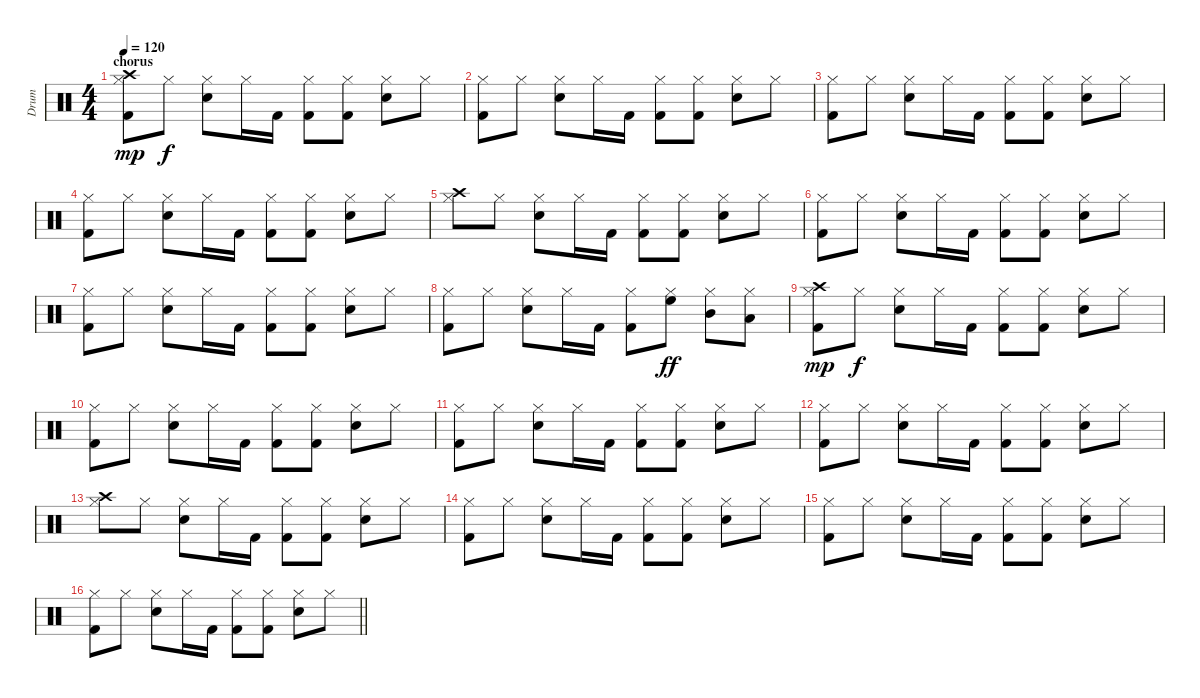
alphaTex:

\track ("Drum" "Drum") {instrument percussion}
\staff {score}
\articulation defaults
\ts (4 4)
\section ("" "chorus")
\tempo 120
\clef neutral
\ks c
("Kick (hit) 2" "Hi-Hat (closed)" "Crash high (hit)").8{dy mp} "Hi-Hat (closed)".8{dy f} ("Electric Snare (hit)" "Hi-Hat (closed)").8 "Hi-Hat (closed)".16 "Kick (hit) 2".16 ("Kick (hit) 2" "Hi-Hat (closed)").8 ("Kick (hit) 2" "Hi-Hat (closed)").8 ("Electric Snare (hit)" "Hi-Hat (closed)").8 "Hi-Hat (closed)".8 |
("Kick (hit) 2" "Hi-Hat (closed)").8 "Hi-Hat (closed)".8 ("Electric Snare (hit)" "Hi-Hat (closed)").8 "Hi-Hat (closed)".16 "Kick (hit) 2".16 ("Kick (hit) 2" "Hi-Hat (closed)").8 ("Kick (hit) 2" "Hi-Hat (closed)").8 ("Electric Snare (hit)" "Hi-Hat (closed)").8 "Hi-Hat (closed)".8 |
("Kick (hit) 2" "Hi-Hat (closed)").8 "Hi-Hat (closed)".8 ("Electric Snare (hit)" "Hi-Hat (closed)").8 "Hi-Hat (closed)".16 "Kick (hit) 2".16 ("Kick (hit) 2" "Hi-Hat (closed)").8 ("Kick (hit) 2" "Hi-Hat (closed)").8 ("Electric Snare (hit)" "Hi-Hat (closed)").8 "Hi-Hat (closed)".8 |
("Kick (hit) 2" "Hi-Hat (closed)").8 "Hi-Hat (closed)".8 ("Electric Snare (hit)" "Hi-Hat (closed)").8 "Hi-Hat (closed)".16 "Kick (hit) 2".16 ("Kick (hit) 2" "Hi-Hat (closed)").8 ("Kick (hit) 2" "Hi-Hat (closed)").8 ("Electric Snare (hit)" "Hi-Hat (closed)").8 "Hi-Hat (closed)".8 |
("Crash high (hit)" "Hi-Hat (closed)").8 "Hi-Hat (closed)".8 ("Electric Snare (hit)" "Hi-Hat (closed)").8 "Hi-Hat (closed)".16 "Kick (hit) 2".16 ("Kick (hit) 2" "Hi-Hat (closed)").8 ("Kick (hit) 2" "Hi-Hat (closed)").8 ("Electric Snare (hit)" "Hi-Hat (closed)").8 "Hi-Hat (closed)".8 |
("Kick (hit) 2" "Hi-Hat (closed)").8 "Hi-Hat (closed)".8 ("Electric Snare (hit)" "Hi-Hat (closed)").8 "Hi-Hat (closed)".16 "Kick (hit) 2".16 ("Kick (hit) 2" "Hi-Hat (closed)").8 ("Kick (hit) 2" "Hi-Hat (closed)").8 ("Electric Snare (hit)" "Hi-Hat (closed)").8 "Hi-Hat (closed)".8 |
("Kick (hit) 2" "Hi-Hat (closed)").8 "Hi-Hat (closed)".8 ("Electric Snare (hit)" "Hi-Hat (closed)").8 "Hi-Hat (closed)".16 "Kick (hit) 2".16 ("Kick (hit) 2" "Hi-Hat (closed)").8 ("Kick (hit) 2" "Hi-Hat (closed)").8 ("Electric Snare (hit)" "Hi-Hat (closed)").8 "Hi-Hat (closed)".8 |
("Kick (hit) 2" "Hi-Hat (closed)").8 "Hi-Hat (closed)".8 ("Electric Snare (hit)" "Hi-Hat (closed)").8 "Hi-Hat (closed)".16 "Kick (hit) 2".16 ("Kick (hit) 2" "Hi-Hat (closed)").8 ("Hi-Hat (closed)" "High Floor Tom (hit)").8{dy ff} ("Hi-Hat (closed)" "Mid Tom (hit)").8 ("Hi-Hat (closed)" "Low Tom (hit)").8 |
("Kick (hit) 2" "Hi-Hat (closed)" "Crash high (hit)").8{dy mp} "Hi-Hat (closed)".8{dy f} ("Electric Snare (hit)" "Hi-Hat (closed)").8 "Hi-Hat (closed)".16 "Kick (hit) 2".16 ("Kick (hit) 2" "Hi-Hat (closed)").8 ("Kick (hit) 2" "Hi-Hat (closed)").8 ("Electric Snare (hit)" "Hi-Hat (closed)").8 "Hi-Hat (closed)".8 |
("Kick (hit) 2" "Hi-Hat (closed)").8 "Hi-Hat (closed)".8 ("Electric Snare (hit)" "Hi-Hat (closed)").8 "Hi-Hat (closed)".16 "Kick (hit) 2".16 ("Kick (hit) 2" "Hi-Hat (closed)").8 ("Kick (hit) 2" "Hi-Hat (closed)").8 ("Electric Snare (hit)" "Hi-Hat (closed)").8 "Hi-Hat (closed)".8 |
("Kick (hit) 2" "Hi-Hat (closed)").8 "Hi-Hat (closed)".8 ("Electric Snare (hit)" "Hi-Hat (closed)").8 "Hi-Hat (closed)".16 "Kick (hit) 2".16 ("Kick (hit) 2" "Hi-Hat (closed)").8 ("Kick (hit) 2" "Hi-Hat (closed)").8 ("Electric Snare (hit)" "Hi-Hat (closed)").8 "Hi-Hat (closed)".8 |
("Kick (hit) 2" "Hi-Hat (closed)").8 "Hi-Hat (closed)".8 ("Electric Snare (hit)" "Hi-Hat (closed)").8 "Hi-Hat (closed)".16 "Kick (hit) 2".16 ("Kick (hit) 2" "Hi-Hat (closed)").8 ("Kick (hit) 2" "Hi-Hat (closed)").8 ("Electric Snare (hit)" "Hi-Hat (closed)").8 "Hi-Hat (closed)".8 |
("Crash high (hit)" "Hi-Hat (closed)").8 "Hi-Hat (closed)".8 ("Electric Snare (hit)" "Hi-Hat (closed)").8 "Hi-Hat (closed)".16 "Kick (hit) 2".16 ("Kick (hit) 2" "Hi-Hat (closed)").8 ("Kick (hit) 2" "Hi-Hat (closed)").8 ("Electric Snare (hit)" "Hi-Hat (closed)").8 "Hi-Hat (closed)".8 |
("Kick (hit) 2" "Hi-Hat (closed)").8 "Hi-Hat (closed)".8 ("Electric Snare (hit)" "Hi-Hat (closed)").8 "Hi-Hat (closed)".16 "Kick (hit) 2".16 ("Kick (hit) 2" "Hi-Hat (closed)").8 ("Kick (hit) 2" "Hi-Hat (closed)").8 ("Electric Snare (hit)" "Hi-Hat (closed)").8 "Hi-Hat (closed)".8 |
("Kick (hit) 2" "Hi-Hat (closed)").8 "Hi-Hat (closed)".8 ("Electric Snare (hit)" "Hi-Hat (closed)").8 "Hi-Hat (closed)".16 "Kick (hit) 2".16 ("Kick (hit) 2" "Hi-Hat (closed)").8 ("Kick (hit) 2" "Hi-Hat (closed)").8 ("Electric Snare (hit)" "Hi-Hat (closed)").8 "Hi-Hat (closed)".8 |
\barLineRight lightlight
("Kick (hit) 2" "Hi-Hat (closed)").8 "Hi-Hat (closed)".8 ("Electric Snare (hit)" "Hi-Hat (closed)").8 "Hi-Hat (closed)".16 "Kick (hit) 2".16 ("Kick (hit) 2" "Hi-Hat (closed)").8 ("Kick (hit) 2" "Hi-Hat (closed)").8 ("Electric Snare (hit)" "Hi-Hat (closed)").8 "Hi-Hat (closed)".8
